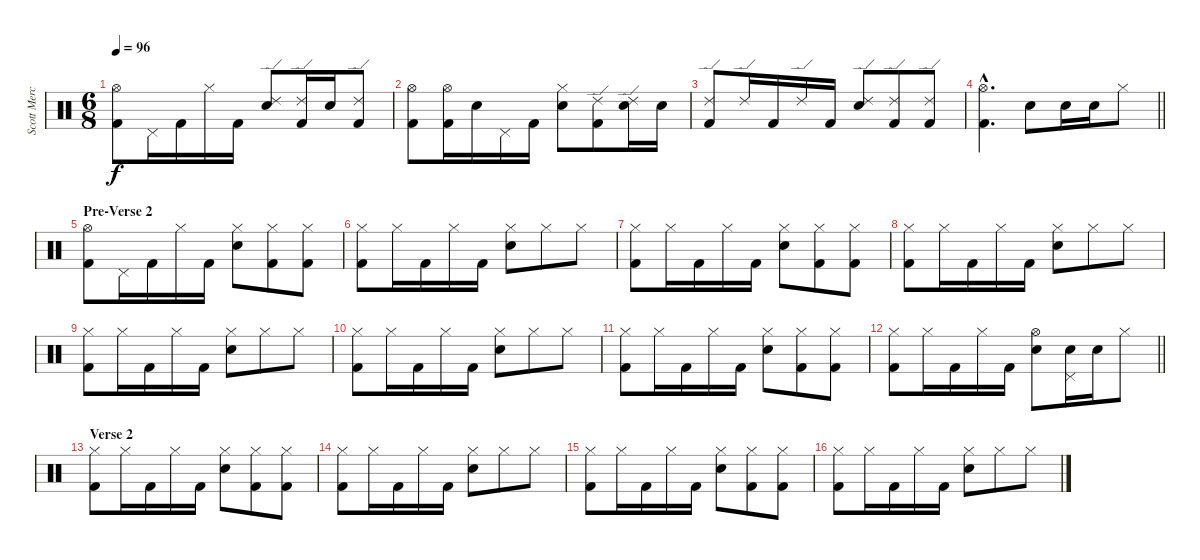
\track ("Scott Mercado Drums" "Scott Merc") {instrument percussion}
\staff {score}
\articulation defaults
\ts (6 8)
\tempo 96
\clef neutral
\ks c
("Hi-Hat (open)" "Kick (hit) 2").8{dy f} "Pedal Hi-Hat (hit)".16 "Kick (hit) 2".16 "Hi-Hat (closed)".16 "Kick (hit) 2".16 ("Ride (edge) 2" "Electric Snare (hit)").8 ("Ride (edge) 2" "Kick (hit) 2").16 "Electric Snare (hit)".16 ("Ride (edge) 2" "Kick (hit) 2").8 |
("Hi-Hat (open)" "Kick (hit) 2").8 ("Hi-Hat (open)" "Kick (hit) 2").16 "Electric Snare (hit)".16 "Pedal Hi-Hat (hit)".16 "Kick (hit) 2".16 ("Hi-Hat (closed)" "Electric Snare (hit)").8 ("Ride (edge) 2" "Kick (hit) 2").8 ("Ride (edge) 2" "Electric Snare (hit)").16 "Electric Snare (hit)".16 |
("Ride (edge) 2" "Kick (hit) 2").8 "Ride (edge) 2".16 "Kick (hit) 2".16 "Ride (edge) 2".16 "Kick (hit) 2".16 ("Ride (edge) 2" "Electric Snare (hit)").8 ("Ride (edge) 2" "Kick (hit) 2").8 ("Ride (edge) 2" "Kick (hit) 2").8 |
\barLineRight lightlight
("Hi-Hat (open)"{hac} "Kick (hit) 2"{hac}).4{d} "Electric Snare (hit)".8 "Electric Snare (hit)".16 "Electric Snare (hit)".16 "Hi-Hat (closed)".8 |
\section ("" "Pre-Verse 2")
("Hi-Hat (open)" "Kick (hit) 2").8 "Pedal Hi-Hat (hit)".16 "Kick (hit) 2".16 "Hi-Hat (closed)".16 "Kick (hit) 2".16 ("Hi-Hat (closed)" "Electric Snare (hit)").8 ("Hi-Hat (closed)" "Kick (hit) 2").8 ("Hi-Hat (closed)" "Kick (hit) 2").8 |
("Hi-Hat (closed)" "Kick (hit) 2").8 "Hi-Hat (closed)".16 "Kick (hit) 2".16 "Hi-Hat (closed)".16 "Kick (hit) 2".16 ("Hi-Hat (closed)" "Electric Snare (hit)").8 "Hi-Hat (closed)".8 "Hi-Hat (closed)".8 |
("Hi-Hat (closed)" "Kick (hit) 2").8 "Hi-Hat (closed)".16 "Kick (hit) 2".16 "Hi-Hat (closed)".16 "Kick (hit) 2".16 ("Hi-Hat (closed)" "Electric Snare (hit)").8 ("Hi-Hat (closed)" "Kick (hit) 2").8 ("Hi-Hat (closed)" "Kick (hit) 2").8 |
("Hi-Hat (closed)" "Kick (hit) 2").8 "Hi-Hat (closed)".16 "Kick (hit) 2".16 "Hi-Hat (closed)".16 "Kick (hit) 2".16 ("Hi-Hat (closed)" "Electric Snare (hit)").8 "Hi-Hat (closed)".8 "Hi-Hat (closed)".8 |
("Hi-Hat (closed)" "Kick (hit) 2").8 "Hi-Hat (closed)".16 "Kick (hit) 2".16 "Hi-Hat (closed)".16 "Kick (hit) 2".16 ("Hi-Hat (closed)" "Electric Snare (hit)").8 "Hi-Hat (closed)".8 "Hi-Hat (closed)".8 |
("Hi-Hat (closed)" "Kick (hit) 2").8 "Hi-Hat (closed)".16 "Kick (hit) 2".16 "Hi-Hat (closed)".16 "Kick (hit) 2".16 ("Hi-Hat (closed)" "Electric Snare (hit)").8 "Hi-Hat (closed)".8 "Hi-Hat (closed)".8 |
("Hi-Hat (closed)" "Kick (hit) 2").8 "Hi-Hat (closed)".16 "Kick (hit) 2".16 "Hi-Hat (closed)".16 "Kick (hit) 2".16 ("Hi-Hat (closed)" "Electric Snare (hit)").8 ("Hi-Hat (closed)" "Kick (hit) 2").8 ("Hi-Hat (closed)" "Kick (hit) 2").8 |
\barLineRight lightlight
("Hi-Hat (closed)" "Kick (hit) 2").8 "Hi-Hat (closed)".16 "Kick (hit) 2".16 "Hi-Hat (closed)".16 "Kick (hit) 2".16 ("Hi-Hat (open)" "Electric Snare (hit)").8 ("Pedal Hi-Hat (hit)" "Electric Snare (hit)").16 "Electric Snare (hit)".16 "Hi-Hat (closed)".8 |
\section ("" "Verse 2")
("Hi-Hat (closed)" "Kick (hit) 2").8 "Hi-Hat (closed)".16 "Kick (hit) 2".16 "Hi-Hat (closed)".16 "Kick (hit) 2".16 ("Hi-Hat (closed)" "Electric Snare (hit)").8 ("Hi-Hat (closed)" "Kick (hit) 2").8 ("Hi-Hat (closed)" "Kick (hit) 2").8 |
("Hi-Hat (closed)" "Kick (hit) 2").8 "Hi-Hat (closed)".16 "Kick (hit) 2".16 "Hi-Hat (closed)".16 "Kick (hit) 2".16 ("Hi-Hat (closed)" "Electric Snare (hit)").8 "Hi-Hat (closed)".8 "Hi-Hat (closed)".8 |
("Hi-Hat (closed)" "Kick (hit) 2").8 "Hi-Hat (closed)".16 "Kick (hit) 2".16 "Hi-Hat (closed)".16 "Kick (hit) 2".16 ("Hi-Hat (closed)" "Electric Snare (hit)").8 ("Hi-Hat (closed)" "Kick (hit) 2").8 ("Hi-Hat (closed)" "Kick (hit) 2").8 |
("Hi-Hat (closed)" "Kick (hit) 2").8 "Hi-Hat (closed)".16 "Kick (hit) 2".16 "Hi-Hat (closed)".16 "Kick (hit) 2".16 ("Hi-Hat (closed)" "Electric Snare (hit)").8 "Hi-Hat (closed)".8 "Hi-Hat (closed)".8
